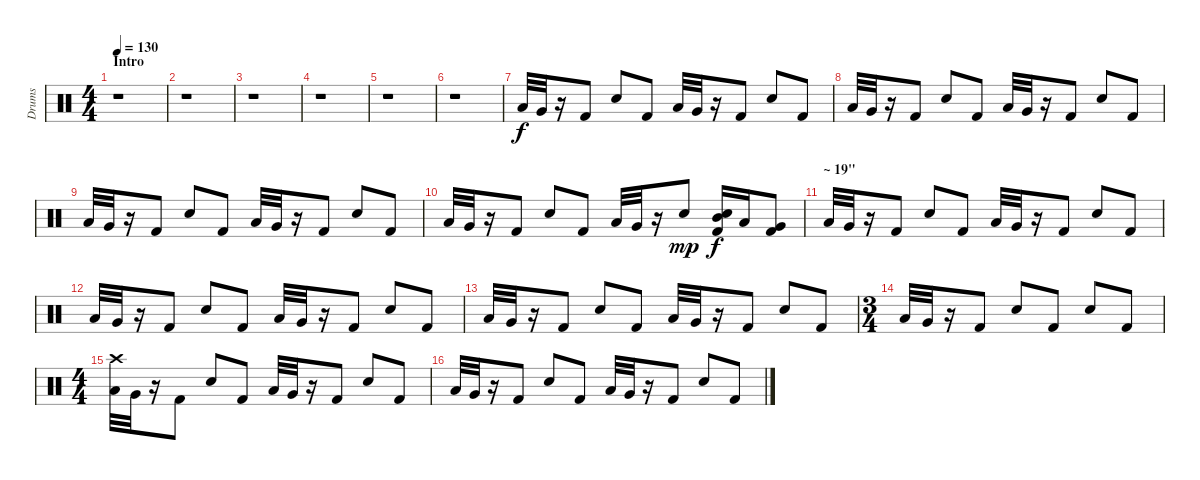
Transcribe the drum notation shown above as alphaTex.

\track ("Drums" "Drums") {instrument percussion}
\staff {score}
\articulation defaults
\ts (4 4)
\section ("" "Intro")
\tempo 130
\clef neutral
\ks c
r.1{dy f} |
r.1 |
r.1 |
r.1 |
r.1 |
r.1 |
"Low Tom (hit)".32 "Very Low Tom (hit)".32 r.16 "Kick (hit) 2".8 "Electric Snare (hit)".8 "Kick (hit) 2".8 "Low Tom (hit)".32 "Very Low Tom (hit)".32 r.16 "Kick (hit) 2".8 "Electric Snare (hit)".8 "Kick (hit) 2".8 |
"Low Tom (hit)".32 "Very Low Tom (hit)".32 r.16 "Kick (hit) 2".8 "Electric Snare (hit)".8 "Kick (hit) 2".8 "Low Tom (hit)".32 "Very Low Tom (hit)".32 r.16 "Kick (hit) 2".8 "Electric Snare (hit)".8 "Kick (hit) 2".8 |
"Low Tom (hit)".32 "Very Low Tom (hit)".32 r.16 "Kick (hit) 2".8 "Electric Snare (hit)".8 "Kick (hit) 2".8 "Low Tom (hit)".32 "Very Low Tom (hit)".32 r.16 "Kick (hit) 2".8 "Electric Snare (hit)".8 "Kick (hit) 2".8 |
"Low Tom (hit)".32 "Very Low Tom (hit)".32 r.16 "Kick (hit) 2".8 "Electric Snare (hit)".8 "Kick (hit) 2".8 "Low Tom (hit)".32 "Very Low Tom (hit)".32 r.16 "Electric Snare (hit)".8{dy mp} ("Mid Tom (hit)" "Kick (hit) 2" "Electric Snare (hit)").16{dy f} "Low Tom (hit)".16 ("Kick (hit) 2" "Very Low Tom (hit)").8 |
\section ("" "~ 19\"")
"Low Tom (hit)".32 "Very Low Tom (hit)".32 r.16 "Kick (hit) 2".8 "Electric Snare (hit)".8 "Kick (hit) 2".8 "Low Tom (hit)".32 "Very Low Tom (hit)".32 r.16 "Kick (hit) 2".8 "Electric Snare (hit)".8 "Kick (hit) 2".8 |
"Low Tom (hit)".32 "Very Low Tom (hit)".32 r.16 "Kick (hit) 2".8 "Electric Snare (hit)".8 "Kick (hit) 2".8 "Low Tom (hit)".32 "Very Low Tom (hit)".32 r.16 "Kick (hit) 2".8 "Electric Snare (hit)".8 "Kick (hit) 2".8 |
"Low Tom (hit)".32 "Very Low Tom (hit)".32 r.16 "Kick (hit) 2".8 "Electric Snare (hit)".8 "Kick (hit) 2".8 "Low Tom (hit)".32 "Very Low Tom (hit)".32 r.16 "Kick (hit) 2".8 "Electric Snare (hit)".8 "Kick (hit) 2".8 |
\ts (3 4)
"Low Tom (hit)".32 "Very Low Tom (hit)".32 r.16 "Kick (hit) 2".8 "Electric Snare (hit)".8 "Kick (hit) 2".8 "Electric Snare (hit)".8 "Kick (hit) 2".8 |
\ts (4 4)
("Low Tom (hit)" "Crash high (hit)").32 "Very Low Tom (hit)".32 r.16 "Kick (hit) 2".8 "Electric Snare (hit)".8 "Kick (hit) 2".8 "Low Tom (hit)".32 "Very Low Tom (hit)".32 r.16 "Kick (hit) 2".8 "Electric Snare (hit)".8 "Kick (hit) 2".8 |
"Low Tom (hit)".32 "Very Low Tom (hit)".32 r.16 "Kick (hit) 2".8 "Electric Snare (hit)".8 "Kick (hit) 2".8 "Low Tom (hit)".32 "Very Low Tom (hit)".32 r.16 "Kick (hit) 2".8 "Electric Snare (hit)".8 "Kick (hit) 2".8
